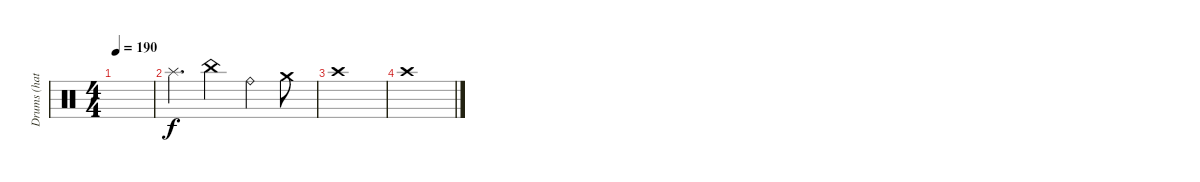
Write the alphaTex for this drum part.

\track ("Drums (hats)" "Drums (hat") {instrument percussion}
\staff {score}
\articulation defaults
\ts (4 4)
\tempo 190
\clef neutral
\ks c
|
"Splash (hit)".4{d} "China (hit)".4 "Ride (bell)".4 "Crash medium (hit)".8 |
"Crash high (hit)".1 |
"Crash high (hit)".1
